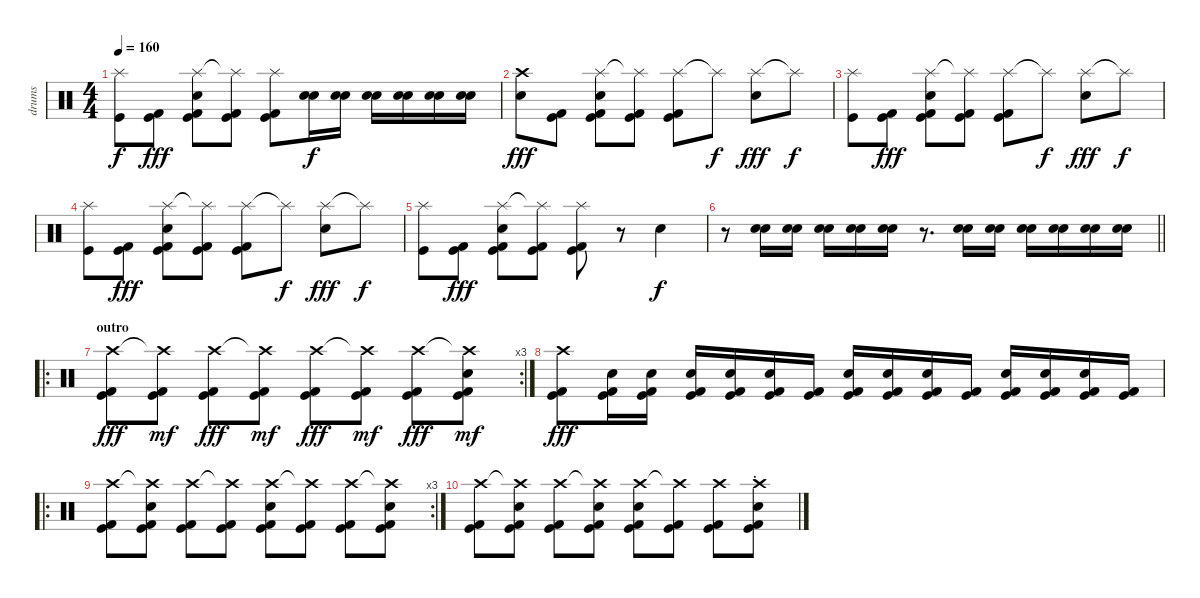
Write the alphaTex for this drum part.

\track ("drums" "drums") {instrument percussion}
\staff {score}
\articulation defaults
\ts (4 4)
\tempo 160
\clef neutral
\ks c
("Splash (hit)" "Kick (hit)").8{dy f} ("Kick (hit) 2" "Kick (hit)").8{dy fff} ("Splash (hit)" "Electric Snare (hit)" "Kick (hit) 2" "Kick (hit)").8 ("Splash (hit)"{t} "Kick (hit) 2" "Kick (hit)").8 ("Splash (hit)" "Kick (hit) 2" "Kick (hit)").8 ("Snare (hit) 2" "Electric Snare (hit)").16{dy f} ("Snare (hit) 2" "Electric Snare (hit)").16 ("Snare (hit) 2" "Electric Snare (hit)").16 ("Snare (hit) 2" "Electric Snare (hit)").16 ("Snare (hit) 2" "Electric Snare (hit)").16 ("Snare (hit) 2" "Electric Snare (hit)").16 |
("Crash high (hit)" "Electric Snare (hit)").8{dy fff} ("Kick (hit) 2" "Kick (hit)").8 ("Splash (hit)" "Electric Snare (hit)" "Kick (hit) 2" "Kick (hit)").8 ("Splash (hit)"{t} "Kick (hit) 2" "Kick (hit)").8 ("Splash (hit)" "Kick (hit) 2" "Kick (hit)").8 "Splash (hit)"{t}.8{dy f} ("Splash (hit)" "Electric Snare (hit)").8{dy fff} "Splash (hit)"{t}.8{dy f} |
("Splash (hit)" "Kick (hit)").8 ("Kick (hit) 2" "Kick (hit)").8{dy fff} ("Splash (hit)" "Electric Snare (hit)" "Kick (hit) 2" "Kick (hit)").8 ("Splash (hit)"{t} "Kick (hit) 2" "Kick (hit)").8 ("Splash (hit)" "Kick (hit) 2" "Kick (hit)").8 "Splash (hit)"{t}.8{dy f} ("Splash (hit)" "Electric Snare (hit)").8{dy fff} "Splash (hit)"{t}.8{dy f} |
("Splash (hit)" "Kick (hit)").8 ("Kick (hit) 2" "Kick (hit)").8{dy fff} ("Splash (hit)" "Electric Snare (hit)" "Kick (hit) 2" "Kick (hit)").8 ("Splash (hit)"{t} "Kick (hit) 2" "Kick (hit)").8 ("Splash (hit)" "Kick (hit) 2" "Kick (hit)").8 "Splash (hit)"{t}.8{dy f} ("Splash (hit)" "Electric Snare (hit)").8{dy fff} "Splash (hit)"{t}.8{dy f} |
("Splash (hit)" "Kick (hit)").8 ("Kick (hit) 2" "Kick (hit)").8{dy fff} ("Splash (hit)" "Electric Snare (hit)" "Kick (hit) 2" "Kick (hit)").8 ("Splash (hit)"{t} "Kick (hit) 2" "Kick (hit)").8 ("Splash (hit)" "Kick (hit) 2" "Kick (hit)").8 r.8 "Electric Snare (hit)".4{dy f} |
\barLineRight lightlight
r.8 ("Snare (hit) 2" "Electric Snare (hit)").16 ("Snare (hit) 2" "Electric Snare (hit)").16 ("Snare (hit) 2" "Electric Snare (hit)").16 ("Snare (hit) 2" "Electric Snare (hit)").16 ("Snare (hit) 2" "Electric Snare (hit)").16 r.8{d} ("Snare (hit) 2" "Electric Snare (hit)").16 ("Snare (hit) 2" "Electric Snare (hit)").16 ("Snare (hit) 2" "Electric Snare (hit)").16 ("Snare (hit) 2" "Electric Snare (hit)").16 ("Snare (hit) 2" "Electric Snare (hit)").16 ("Snare (hit) 2" "Electric Snare (hit)").16 |
\ro
\rc 3
\section ("" "outro")
("Crash high (hit)" "Kick (hit)" "Kick (hit) 2").8{dy fff} ("Crash high (hit)"{t} "Kick (hit)" "Kick (hit) 2").8{dy mf} ("Crash high (hit)" "Kick (hit)" "Kick (hit) 2").8{dy fff} ("Crash high (hit)"{t} "Kick (hit) 2" "Kick (hit)").8{dy mf} ("Crash high (hit)" "Kick (hit)" "Kick (hit) 2").8{dy fff} ("Crash high (hit)"{t} "Kick (hit)" "Kick (hit) 2").8{dy mf} ("Crash high (hit)" "Kick (hit)" "Kick (hit) 2").8{dy fff} ("Crash high (hit)"{t} "Electric Snare (hit)" "Kick (hit)" "Kick (hit) 2").8{dy mf} |
("Crash high (hit)" "Kick (hit)" "Kick (hit) 2").8{dy fff} ("Electric Snare (hit)" "Kick (hit) 2" "Kick (hit)").16 ("Electric Snare (hit)" "Kick (hit) 2" "Kick (hit)").16 ("Electric Snare (hit)" "Kick (hit) 2" "Kick (hit)").16 ("Electric Snare (hit)" "Kick (hit) 2" "Kick (hit)").16 ("Electric Snare (hit)" "Kick (hit) 2" "Kick (hit)").16 ("Kick (hit) 2" "Kick (hit)").16 ("Electric Snare (hit)" "Kick (hit) 2" "Kick (hit)").16 ("Electric Snare (hit)" "Kick (hit) 2" "Kick (hit)").16 ("Electric Snare (hit)" "Kick (hit) 2" "Kick (hit)").16 ("Kick (hit) 2" "Kick (hit)").16 ("Electric Snare (hit)" "Kick (hit) 2" "Kick (hit)").16 ("Electric Snare (hit)" "Kick (hit) 2" "Kick (hit)").16 ("Electric Snare (hit)" "Kick (hit) 2" "Kick (hit)").16 ("Kick (hit) 2" "Kick (hit)").16 |
\ro
\rc 3
("Crash high (hit)" "Kick (hit)" "Kick (hit) 2").8 ("Crash high (hit)"{t} "Electric Snare (hit)" "Kick (hit)" "Kick (hit) 2").8 ("Crash high (hit)" "Kick (hit)" "Kick (hit) 2").8 ("Crash high (hit)"{t} "Kick (hit) 2" "Kick (hit)").8 ("Crash high (hit)" "Electric Snare (hit)" "Kick (hit)" "Kick (hit) 2").8 ("Crash high (hit)"{t} "Kick (hit)" "Kick (hit) 2").8 ("Crash high (hit)" "Kick (hit)" "Kick (hit) 2").8 ("Crash high (hit)"{t} "Electric Snare (hit)" "Kick (hit)" "Kick (hit) 2").8 |
("Crash high (hit)" "Kick (hit) 2" "Kick (hit)").8 ("Crash high (hit)"{t} "Electric Snare (hit)" "Kick (hit) 2" "Kick (hit)").8 ("Crash high (hit)" "Kick (hit) 2" "Kick (hit)").8 ("Crash high (hit)"{t} "Electric Snare (hit)" "Kick (hit) 2" "Kick (hit)").8 ("Crash high (hit)" "Electric Snare (hit)" "Kick (hit) 2" "Kick (hit)").8 ("Crash high (hit)"{t} "Kick (hit) 2" "Kick (hit)").8 ("Crash high (hit)" "Kick (hit) 2" "Kick (hit)").8 ("Crash high (hit)"{st} "Electric Snare (hit)" "Kick (hit) 2" "Kick (hit)").8
